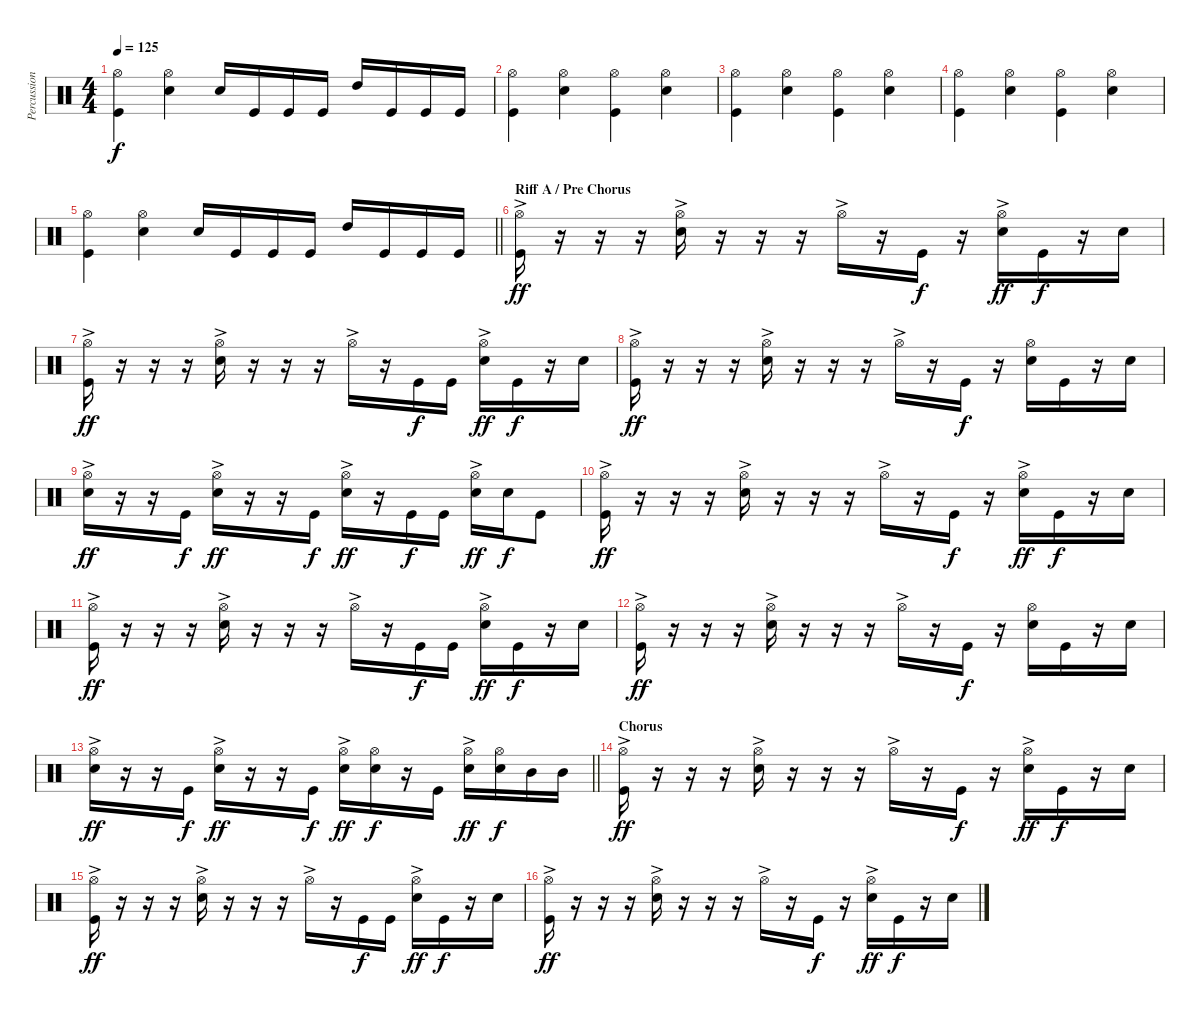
\track ("Percussion" "Percussion") {instrument percussion}
\staff {score}
\articulation defaults
\ts (4 4)
\tempo 125
\clef neutral
\ks c
("Hi-Hat (open)" "Kick (hit)").4{dy f} ("Hi-Hat (open)" "Snare (hit) 2").4 "Snare (hit) 2".16 "Kick (hit)".16 "Kick (hit)".16 "Kick (hit)".16 "High Tom (hit)".16 "Kick (hit)".16 "Kick (hit)".16 "Kick (hit)".16 |
("Hi-Hat (open)" "Kick (hit)").4 ("Hi-Hat (open)" "Snare (hit) 2").4 ("Hi-Hat (open)" "Kick (hit)").4 ("Hi-Hat (open)" "Snare (hit) 2").4 |
("Hi-Hat (open)" "Kick (hit)").4 ("Hi-Hat (open)" "Snare (hit) 2").4 ("Hi-Hat (open)" "Kick (hit)").4 ("Hi-Hat (open)" "Snare (hit) 2").4 |
("Hi-Hat (open)" "Kick (hit)").4 ("Hi-Hat (open)" "Snare (hit) 2").4 ("Hi-Hat (open)" "Kick (hit)").4 ("Hi-Hat (open)" "Snare (hit) 2").4 |
\barLineRight lightlight
("Hi-Hat (open)" "Kick (hit)").4 ("Hi-Hat (open)" "Snare (hit) 2").4 "Snare (hit) 2".16 "Kick (hit)".16 "Kick (hit)".16 "Kick (hit)".16 "High Tom (hit)".16 "Kick (hit)".16 "Kick (hit)".16 "Kick (hit)".16 |
\section ("" "Riff A / Pre Chorus")
("Hi-Hat (open)"{ac} "Kick (hit)").16{dy ff} r.16 r.16 r.16 ("Hi-Hat (open)"{ac} "Snare (hit) 2").16 r.16 r.16 r.16 "Hi-Hat (open)"{ac}.16 r.16 "Kick (hit)".16{dy f} r.16 ("Hi-Hat (open)"{ac} "Snare (hit) 2").16{dy ff} "Kick (hit)".16{dy f} r.16 "Snare (hit) 2".16 |
("Hi-Hat (open)"{ac} "Kick (hit)").16{dy ff} r.16 r.16 r.16 ("Hi-Hat (open)"{ac} "Snare (hit) 2").16 r.16 r.16 r.16 "Hi-Hat (open)"{ac}.16 r.16 "Kick (hit)".16{dy f} "Kick (hit)".16 ("Hi-Hat (open)"{ac} "Snare (hit) 2").16{dy ff} "Kick (hit)".16{dy f} r.16 "Snare (hit) 2".16 |
("Hi-Hat (open)"{ac} "Kick (hit)").16{dy ff} r.16 r.16 r.16 ("Hi-Hat (open)"{ac} "Snare (hit) 2").16 r.16 r.16 r.16 "Hi-Hat (open)"{ac}.16 r.16 "Kick (hit)".16{dy f} r.16 ("Hi-Hat (open)" "Snare (hit) 2").16 "Kick (hit)".16 r.16 "Snare (hit) 2".16 |
("Hi-Hat (open)"{ac} "Snare (hit) 2").16{dy ff} r.16 r.16 "Kick (hit)".16{dy f} ("Hi-Hat (open)"{ac} "Snare (hit) 2").16{dy ff} r.16 r.16 "Kick (hit)".16{dy f} ("Hi-Hat (open)"{ac} "Snare (hit) 2").16{dy ff} r.16 "Kick (hit)".16{dy f} "Kick (hit)".16 ("Hi-Hat (open)"{ac} "Snare (hit) 2").16{dy ff} "Snare (hit) 2".16{dy f} "Kick (hit)".8 |
("Hi-Hat (open)"{ac} "Kick (hit)").16{dy ff} r.16 r.16 r.16 ("Hi-Hat (open)"{ac} "Snare (hit) 2").16 r.16 r.16 r.16 "Hi-Hat (open)"{ac}.16 r.16 "Kick (hit)".16{dy f} r.16 ("Hi-Hat (open)"{ac} "Snare (hit) 2").16{dy ff} "Kick (hit)".16{dy f} r.16 "Snare (hit) 2".16 |
("Hi-Hat (open)"{ac} "Kick (hit)").16{dy ff} r.16 r.16 r.16 ("Hi-Hat (open)"{ac} "Snare (hit) 2").16 r.16 r.16 r.16 "Hi-Hat (open)"{ac}.16 r.16 "Kick (hit)".16{dy f} "Kick (hit)".16 ("Hi-Hat (open)"{ac} "Snare (hit) 2").16{dy ff} "Kick (hit)".16{dy f} r.16 "Snare (hit) 2".16 |
("Hi-Hat (open)"{ac} "Kick (hit)").16{dy ff} r.16 r.16 r.16 ("Hi-Hat (open)"{ac} "Snare (hit) 2").16 r.16 r.16 r.16 "Hi-Hat (open)"{ac}.16 r.16 "Kick (hit)".16{dy f} r.16 ("Hi-Hat (open)" "Snare (hit) 2").16 "Kick (hit)".16 r.16 "Snare (hit) 2".16 |
\barLineRight lightlight
("Hi-Hat (open)"{ac} "Snare (hit) 2").16{dy ff} r.16 r.16 "Kick (hit)".16{dy f} ("Hi-Hat (open)"{ac} "Snare (hit) 2").16{dy ff} r.16 r.16 "Kick (hit)".16{dy f} ("Hi-Hat (open)"{ac} "Snare (hit) 2").16{dy ff} ("Hi-Hat (open)" "Snare (hit) 2").16{dy f} r.16 "Kick (hit)".16 ("Hi-Hat (open)"{ac} "Snare (hit) 2").16{dy ff} ("Hi-Hat (open)" "Snare (hit) 2").16{dy f} "Mid Tom (hit)".16 "Mid Tom (hit)".16 |
\section ("" "Chorus")
("Hi-Hat (open)"{ac} "Kick (hit)").16{dy ff} r.16 r.16 r.16 ("Hi-Hat (open)"{ac} "Snare (hit) 2").16 r.16 r.16 r.16 "Hi-Hat (open)"{ac}.16 r.16 "Kick (hit)".16{dy f} r.16 ("Hi-Hat (open)"{ac} "Snare (hit) 2").16{dy ff} "Kick (hit)".16{dy f} r.16 "Snare (hit) 2".16 |
("Hi-Hat (open)"{ac} "Kick (hit)").16{dy ff} r.16 r.16 r.16 ("Hi-Hat (open)"{ac} "Snare (hit) 2").16 r.16 r.16 r.16 "Hi-Hat (open)"{ac}.16 r.16 "Kick (hit)".16{dy f} "Kick (hit)".16 ("Hi-Hat (open)"{ac} "Snare (hit) 2").16{dy ff} "Kick (hit)".16{dy f} r.16 "Snare (hit) 2".16 |
("Hi-Hat (open)"{ac} "Kick (hit)").16{dy ff} r.16 r.16 r.16 ("Hi-Hat (open)"{ac} "Snare (hit) 2").16 r.16 r.16 r.16 "Hi-Hat (open)"{ac}.16 r.16 "Kick (hit)".16{dy f} r.16 ("Hi-Hat (open)"{ac} "Snare (hit) 2").16{dy ff} "Kick (hit)".16{dy f} r.16 "Snare (hit) 2".16
